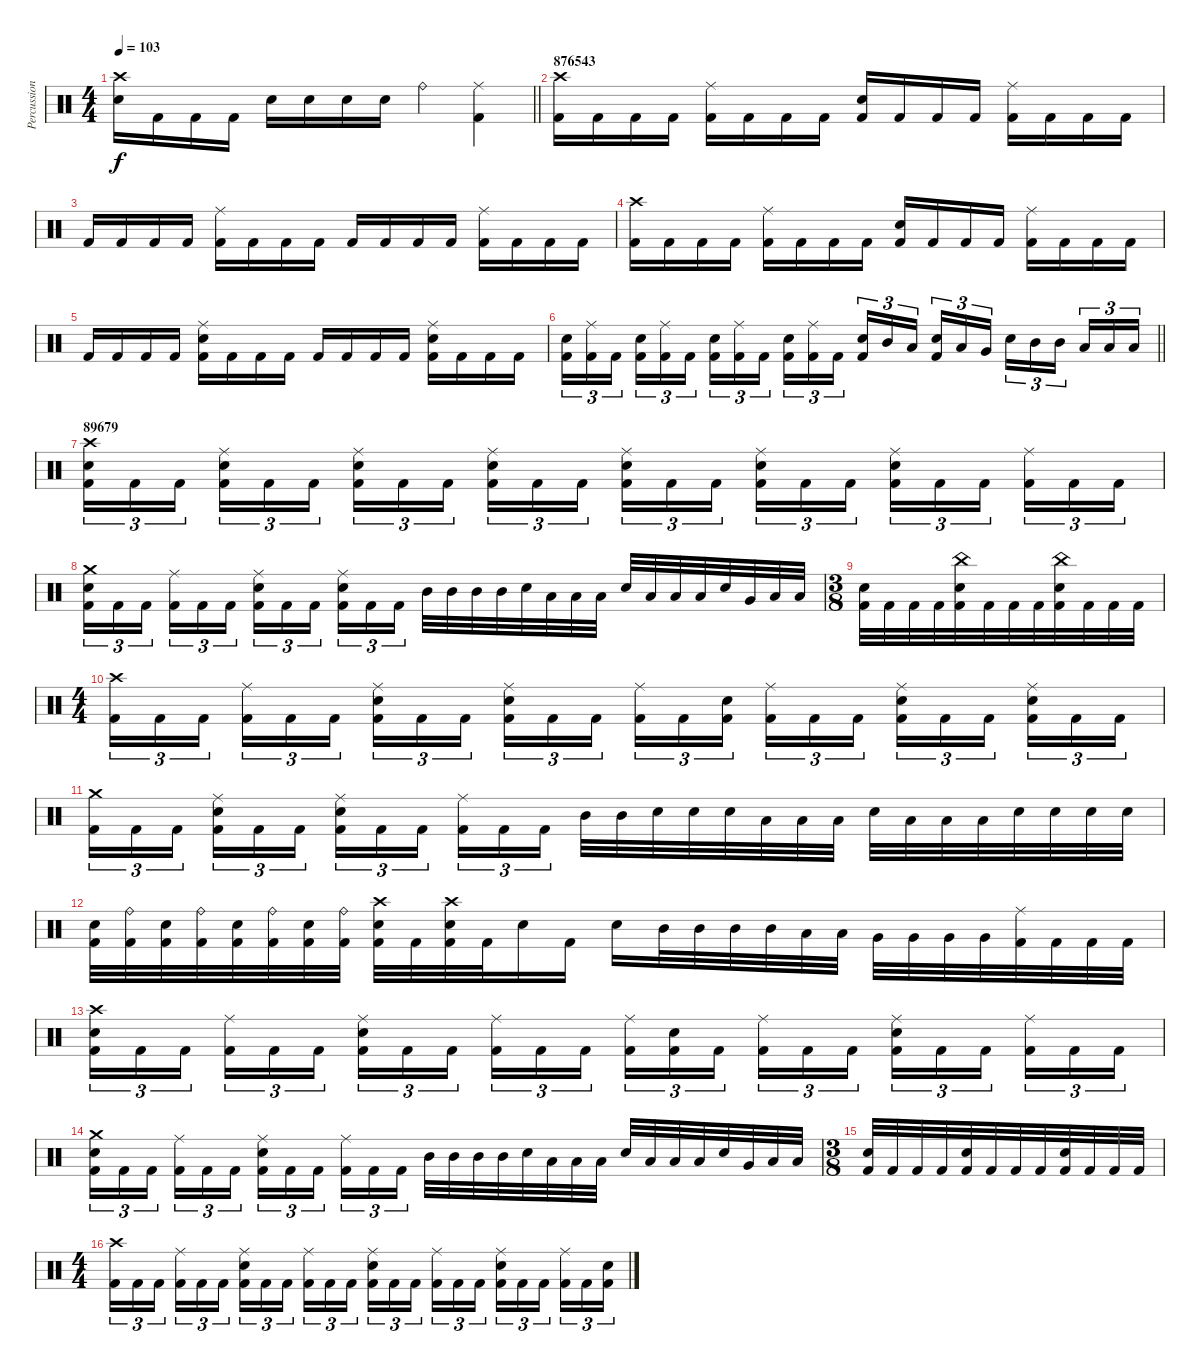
\track ("Percussion" "Percussion") {instrument percussion}
\staff {score}
\articulation defaults
\ts (4 4)
\tempo 103
\clef neutral
\barLineRight lightlight
\ks c
("Crash high (hit)" "Electric Snare (hit)").16{dy f} "Kick (hit) 2".16 "Kick (hit) 2".16 "Kick (hit) 2".16 "Electric Snare (hit)".16 "Electric Snare (hit)".16 "Electric Snare (hit)".16 "Electric Snare (hit)".16 "Ride (bell)".4 ("Ride (middle)" "Kick (hit) 2").4 |
\section ("" "876543")
("Crash high (hit)" "Kick (hit) 2").16 "Kick (hit) 2".16 "Kick (hit) 2".16 "Kick (hit) 2".16 ("Ride (middle)" "Kick (hit) 2").16 "Kick (hit) 2".16 "Kick (hit) 2".16 "Kick (hit) 2".16 ("Electric Snare (hit)" "Kick (hit) 2").16 "Kick (hit) 2".16 "Kick (hit) 2".16 "Kick (hit) 2".16 ("Ride (middle)" "Kick (hit) 2").16 "Kick (hit) 2".16 "Kick (hit) 2".16 "Kick (hit) 2".16 |
"Kick (hit) 2".16 "Kick (hit) 2".16 "Kick (hit) 2".16 "Kick (hit) 2".16 ("Ride (middle)" "Kick (hit) 2").16 "Kick (hit) 2".16 "Kick (hit) 2".16 "Kick (hit) 2".16 "Kick (hit) 2".16 "Kick (hit) 2".16 "Kick (hit) 2".16 "Kick (hit) 2".16 ("Ride (middle)" "Kick (hit) 2").16 "Kick (hit) 2".16 "Kick (hit) 2".16 "Kick (hit) 2".16 |
("Crash high (hit)" "Kick (hit) 2").16 "Kick (hit) 2".16 "Kick (hit) 2".16 "Kick (hit) 2".16 ("Ride (middle)" "Kick (hit) 2").16 "Kick (hit) 2".16 "Kick (hit) 2".16 "Kick (hit) 2".16 ("Electric Snare (hit)" "Kick (hit) 2").16 "Kick (hit) 2".16 "Kick (hit) 2".16 "Kick (hit) 2".16 ("Ride (middle)" "Kick (hit) 2").16 "Kick (hit) 2".16 "Kick (hit) 2".16 "Kick (hit) 2".16 |
"Kick (hit) 2".16 "Kick (hit) 2".16 "Kick (hit) 2".16 "Kick (hit) 2".16 ("Ride (middle)" "Electric Snare (hit)" "Kick (hit) 2").16 "Kick (hit) 2".16 "Kick (hit) 2".16 "Kick (hit) 2".16 "Kick (hit) 2".16 "Kick (hit) 2".16 "Kick (hit) 2".16 "Kick (hit) 2".16 ("Ride (middle)" "Electric Snare (hit)" "Kick (hit) 2").16 "Kick (hit) 2".16 "Kick (hit) 2".16 "Kick (hit) 2".16 |
\barLineRight lightlight
("Electric Snare (hit)" "Kick (hit) 2").16{tu (3 2)} ("Ride (middle)" "Kick (hit) 2").16{tu (3 2)} "Kick (hit) 2".16{tu (3 2)} ("Electric Snare (hit)" "Kick (hit) 2").16{tu (3 2)} ("Ride (middle)" "Kick (hit) 2").16{tu (3 2)} "Kick (hit) 2".16{tu (3 2)} ("Electric Snare (hit)" "Kick (hit) 2").16{tu (3 2)} ("Ride (middle)" "Kick (hit) 2").16{tu (3 2)} "Kick (hit) 2".16{tu (3 2)} ("Electric Snare (hit)" "Kick (hit) 2").16{tu (3 2)} ("Ride (middle)" "Kick (hit) 2").16{tu (3 2)} "Kick (hit) 2".16{tu (3 2)} ("Electric Snare (hit)" "Kick (hit) 2").16{tu (3 2)} "Mid Tom (hit)".16{tu (3 2)} "Low Tom (hit)".16{tu (3 2)} ("Electric Snare (hit)" "Kick (hit) 2").16{tu (3 2)} "Low Tom (hit)".16{tu (3 2)} "Very Low Tom (hit)".16{tu (3 2)} "Electric Snare (hit)".16{tu (3 2)} "Mid Tom (hit)".16{tu (3 2)} "Mid Tom (hit)".16{tu (3 2)} "Low Tom (hit)".16{tu (3 2)} "Low Tom (hit)".16{tu (3 2)} "Low Tom (hit)".16{tu (3 2)} |
\section ("" "89679")
("Crash high (hit)" "Electric Snare (hit)" "Kick (hit) 2").16{tu (3 2)} "Kick (hit) 2".16{tu (3 2)} "Kick (hit) 2".16{tu (3 2)} ("Ride (middle)" "Electric Snare (hit)" "Kick (hit) 2").16{tu (3 2)} "Kick (hit) 2".16{tu (3 2)} "Kick (hit) 2".16{tu (3 2)} ("Ride (middle)" "Electric Snare (hit)" "Kick (hit) 2").16{tu (3 2)} "Kick (hit) 2".16{tu (3 2)} "Kick (hit) 2".16{tu (3 2)} ("Ride (middle)" "Electric Snare (hit)" "Kick (hit) 2").16{tu (3 2)} "Kick (hit) 2".16{tu (3 2)} "Kick (hit) 2".16{tu (3 2)} ("Ride (middle)" "Electric Snare (hit)" "Kick (hit) 2").16{tu (3 2)} "Kick (hit) 2".16{tu (3 2)} "Kick (hit) 2".16{tu (3 2)} ("Ride (middle)" "Electric Snare (hit)" "Kick (hit) 2").16{tu (3 2)} "Kick (hit) 2".16{tu (3 2)} "Kick (hit) 2".16{tu (3 2)} ("Ride (middle)" "Electric Snare (hit)" "Kick (hit) 2").16{tu (3 2)} "Kick (hit) 2".16{tu (3 2)} "Kick (hit) 2".16{tu (3 2)} ("Ride (middle)" "Kick (hit) 2").16{tu (3 2)} "Kick (hit) 2".16{tu (3 2)} "Kick (hit) 2".16{tu (3 2)} |
("Crash medium (hit)" "Electric Snare (hit)" "Kick (hit) 2").16{tu (3 2)} "Kick (hit) 2".16{tu (3 2)} "Kick (hit) 2".16{tu (3 2)} ("Ride (middle)" "Kick (hit) 2").16{tu (3 2)} "Kick (hit) 2".16{tu (3 2)} "Kick (hit) 2".16{tu (3 2)} ("Ride (middle)" "Electric Snare (hit)" "Kick (hit) 2").16{tu (3 2)} "Kick (hit) 2".16{tu (3 2)} "Kick (hit) 2".16{tu (3 2)} ("Ride (middle)" "Electric Snare (hit)" "Kick (hit) 2").16{tu (3 2)} "Kick (hit) 2".16{tu (3 2)} "Kick (hit) 2".16{tu (3 2)} "Mid Tom (hit)".32 "Mid Tom (hit)".32 "Mid Tom (hit)".32 "Mid Tom (hit)".32 "Electric Snare (hit)".32 "Low Tom (hit)".32 "Low Tom (hit)".32 "Low Tom (hit)".32 "Electric Snare (hit)".32 "Low Tom (hit)".32 "Low Tom (hit)".32 "Low Tom (hit)".32 "Electric Snare (hit)".32 "Very Low Tom (hit)".32 "Low Floor Tom (hit)".32 "Low Floor Tom (hit)".32 |
\ts (3 8)
("Electric Snare (hit)" "Kick (hit) 2").32 "Kick (hit) 2".32 "Kick (hit) 2".32 "Kick (hit) 2".32 ("China (hit)" "Electric Snare (hit)" "Kick (hit) 2").32 "Kick (hit) 2".32 "Kick (hit) 2".32 "Kick (hit) 2".32 ("China (hit)" "Electric Snare (hit)" "Kick (hit) 2").32 "Kick (hit) 2".32 "Kick (hit) 2".32 "Kick (hit) 2".32 |
\ts (4 4)
("Crash high (hit)" "Kick (hit) 2").16{tu (3 2)} "Kick (hit) 2".16{tu (3 2)} "Kick (hit) 2".16{tu (3 2)} ("Ride (middle)" "Kick (hit) 2").16{tu (3 2)} "Kick (hit) 2".16{tu (3 2)} "Kick (hit) 2".16{tu (3 2)} ("Ride (middle)" "Electric Snare (hit)" "Kick (hit) 2").16{tu (3 2)} "Kick (hit) 2".16{tu (3 2)} "Kick (hit) 2".16{tu (3 2)} ("Ride (middle)" "Electric Snare (hit)" "Kick (hit) 2").16{tu (3 2)} "Kick (hit) 2".16{tu (3 2)} "Kick (hit) 2".16{tu (3 2)} ("Ride (middle)" "Kick (hit) 2").16{tu (3 2)} "Kick (hit) 2".16{tu (3 2)} ("Electric Snare (hit)" "Kick (hit) 2").16{tu (3 2)} ("Ride (middle)" "Kick (hit) 2").16{tu (3 2)} "Kick (hit) 2".16{tu (3 2)} "Kick (hit) 2".16{tu (3 2)} ("Ride (middle)" "Electric Snare (hit)" "Kick (hit) 2").16{tu (3 2)} "Kick (hit) 2".16{tu (3 2)} "Kick (hit) 2".16{tu (3 2)} ("Ride (middle)" "Electric Snare (hit)" "Kick (hit) 2").16{tu (3 2)} "Kick (hit) 2".16{tu (3 2)} "Kick (hit) 2".16{tu (3 2)} |
("Crash medium (hit)" "Kick (hit) 2").16{tu (3 2)} "Kick (hit) 2".16{tu (3 2)} "Kick (hit) 2".16{tu (3 2)} ("Ride (middle)" "Electric Snare (hit)" "Kick (hit) 2").16{tu (3 2)} "Kick (hit) 2".16{tu (3 2)} "Kick (hit) 2".16{tu (3 2)} ("Ride (middle)" "Electric Snare (hit)" "Kick (hit) 2").16{tu (3 2)} "Kick (hit) 2".16{tu (3 2)} "Kick (hit) 2".16{tu (3 2)} ("Ride (middle)" "Kick (hit) 2").16{tu (3 2)} "Kick (hit) 2".16{tu (3 2)} "Kick (hit) 2".16{tu (3 2)} "Mid Tom (hit)".32 "Mid Tom (hit)".32 "Electric Snare (hit)".32 "Electric Snare (hit)".32 "Electric Snare (hit)".32 "Low Tom (hit)".32 "Low Tom (hit)".32 "Low Tom (hit)".32 "Electric Snare (hit)".32 "Low Tom (hit)".32 "Low Tom (hit)".32 "Low Tom (hit)".32 "Electric Snare (hit)".32 "Electric Snare (hit)".32 "Electric Snare (hit)".32 "Electric Snare (hit)".32 |
("Electric Snare (hit)" "Kick (hit) 2").32 ("Ride (bell)" "Kick (hit) 2").32 ("Electric Snare (hit)" "Kick (hit) 2").32 ("Ride (bell)" "Kick (hit) 2").32 ("Electric Snare (hit)" "Kick (hit) 2").32 ("Ride (bell)" "Kick (hit) 2").32 ("Electric Snare (hit)" "Kick (hit) 2").32 ("Ride (bell)" "Kick (hit) 2").32 ("Crash high (hit)" "Electric Snare (hit)" "Kick (hit) 2").32 "Kick (hit) 2".32 ("Crash high (hit)" "Electric Snare (hit)" "Kick (hit) 2").32 "Kick (hit) 2".32 "Electric Snare (hit)".16 "Kick (hit) 2".16 "Electric Snare (hit)".16 "Mid Tom (hit)".32 "Mid Tom (hit)".32 "Mid Tom (hit)".32 "Mid Tom (hit)".32 "Low Tom (hit)".32 "Low Tom (hit)".32 "Very Low Tom (hit)".32 "Very Low Tom (hit)".32 "Very Low Tom (hit)".32 "Very Low Tom (hit)".32 ("Ride (middle)" "Kick (hit) 2").32 "Kick (hit) 2".32 "Kick (hit) 2".32 "Kick (hit) 2".32 |
("Crash high (hit)" "Electric Snare (hit)" "Kick (hit) 2").16{tu (3 2)} "Kick (hit) 2".16{tu (3 2)} "Kick (hit) 2".16{tu (3 2)} ("Ride (middle)" "Kick (hit) 2").16{tu (3 2)} "Kick (hit) 2".16{tu (3 2)} "Kick (hit) 2".16{tu (3 2)} ("Ride (middle)" "Electric Snare (hit)" "Kick (hit) 2").16{tu (3 2)} "Kick (hit) 2".16{tu (3 2)} "Kick (hit) 2".16{tu (3 2)} ("Ride (middle)" "Kick (hit) 2").16{tu (3 2)} "Kick (hit) 2".16{tu (3 2)} "Kick (hit) 2".16{tu (3 2)} ("Ride (middle)" "Kick (hit) 2").16{tu (3 2)} ("Electric Snare (hit)" "Kick (hit) 2").16{tu (3 2)} "Kick (hit) 2".16{tu (3 2)} ("Ride (middle)" "Kick (hit) 2").16{tu (3 2)} "Kick (hit) 2".16{tu (3 2)} "Kick (hit) 2".16{tu (3 2)} ("Ride (middle)" "Electric Snare (hit)" "Kick (hit) 2").16{tu (3 2)} "Kick (hit) 2".16{tu (3 2)} "Kick (hit) 2".16{tu (3 2)} ("Ride (middle)" "Kick (hit) 2").16{tu (3 2)} "Kick (hit) 2".16{tu (3 2)} "Kick (hit) 2".16{tu (3 2)} |
("Crash medium (hit)" "Electric Snare (hit)" "Kick (hit) 2").16{tu (3 2)} "Kick (hit) 2".16{tu (3 2)} "Kick (hit) 2".16{tu (3 2)} ("Ride (middle)" "Kick (hit) 2").16{tu (3 2)} "Kick (hit) 2".16{tu (3 2)} "Kick (hit) 2".16{tu (3 2)} ("Ride (middle)" "Electric Snare (hit)" "Kick (hit) 2").16{tu (3 2)} "Kick (hit) 2".16{tu (3 2)} "Kick (hit) 2".16{tu (3 2)} ("Ride (middle)" "Kick (hit) 2").16{tu (3 2)} "Kick (hit) 2".16{tu (3 2)} "Kick (hit) 2".16{tu (3 2)} "Mid Tom (hit)".32 "Mid Tom (hit)".32 "Mid Tom (hit)".32 "Mid Tom (hit)".32 "Electric Snare (hit)".32 "Low Tom (hit)".32 "Low Tom (hit)".32 "Low Tom (hit)".32 "Electric Snare (hit)".32 "Low Tom (hit)".32 "Low Tom (hit)".32 "Low Tom (hit)".32 "Electric Snare (hit)".32 "Very Low Tom (hit)".32 "Low Floor Tom (hit)".32 "Low Floor Tom (hit)".32 |
\ts (3 8)
("Electric Snare (hit)" "Kick (hit) 2").32 "Kick (hit) 2".32 "Kick (hit) 2".32 "Kick (hit) 2".32 ("Electric Snare (hit)" "Kick (hit) 2").32 "Kick (hit) 2".32 "Kick (hit) 2".32 "Kick (hit) 2".32 ("Electric Snare (hit)" "Kick (hit) 2").32 "Kick (hit) 2".32 "Kick (hit) 2".32 "Kick (hit) 2".32 |
\ts (4 4)
("Crash high (hit)" "Kick (hit) 2").16{tu (3 2)} "Kick (hit) 2".16{tu (3 2)} "Kick (hit) 2".16{tu (3 2)} ("Ride (middle)" "Kick (hit) 2").16{tu (3 2)} "Kick (hit) 2".16{tu (3 2)} "Kick (hit) 2".16{tu (3 2)} ("Ride (middle)" "Electric Snare (hit)" "Kick (hit) 2").16{tu (3 2)} "Kick (hit) 2".16{tu (3 2)} "Kick (hit) 2".16{tu (3 2)} ("Ride (middle)" "Kick (hit) 2").16{tu (3 2)} "Kick (hit) 2".16{tu (3 2)} "Kick (hit) 2".16{tu (3 2)} ("Ride (middle)" "Electric Snare (hit)" "Kick (hit) 2").16{tu (3 2)} "Kick (hit) 2".16{tu (3 2)} "Kick (hit) 2".16{tu (3 2)} ("Ride (middle)" "Kick (hit) 2").16{tu (3 2)} "Kick (hit) 2".16{tu (3 2)} "Kick (hit) 2".16{tu (3 2)} ("Ride (middle)" "Electric Snare (hit)" "Kick (hit) 2").16{tu (3 2)} "Kick (hit) 2".16{tu (3 2)} "Kick (hit) 2".16{tu (3 2)} ("Ride (middle)" "Kick (hit) 2").16{tu (3 2)} "Kick (hit) 2".16{tu (3 2)} ("Electric Snare (hit)" "Kick (hit) 2").16{tu (3 2)}
